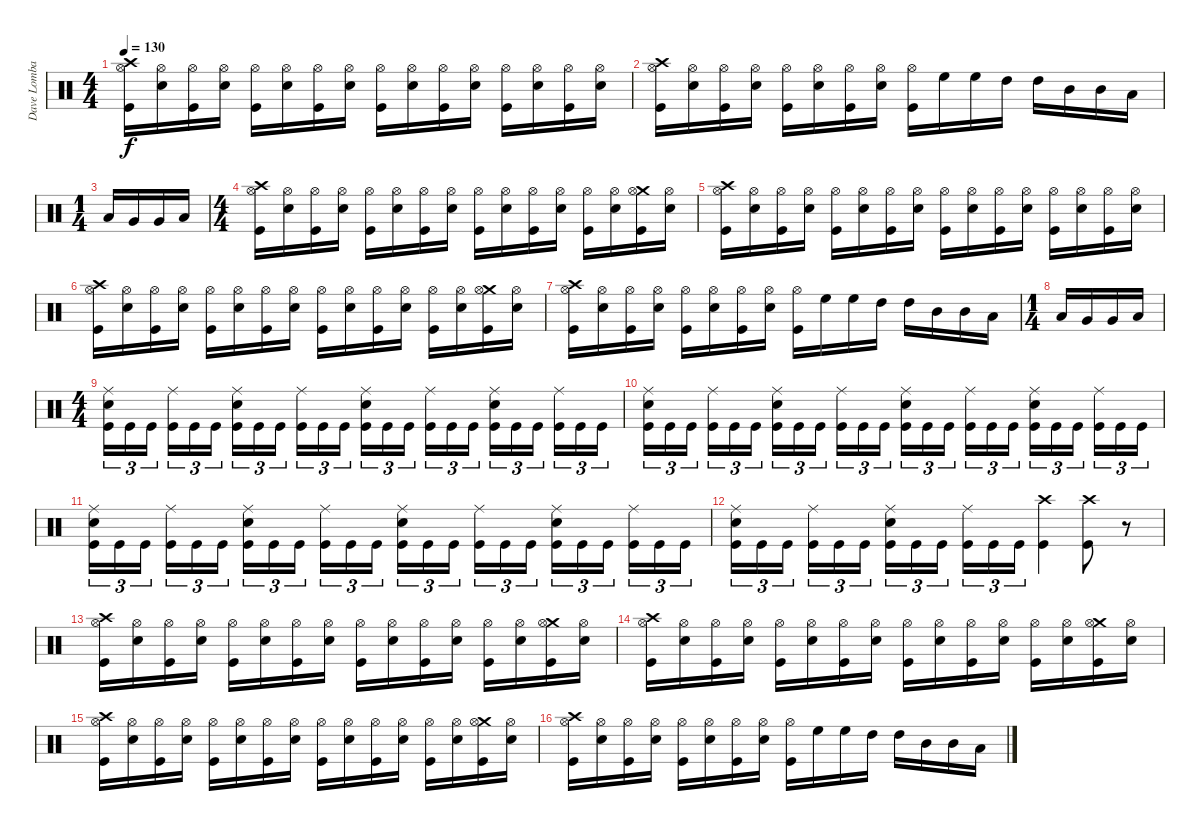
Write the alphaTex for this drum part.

\track ("Dave Lombardo" "Dave Lomba") {instrument percussion}
\staff {score}
\articulation defaults
\ts (4 4)
\tempo 130
\clef neutral
\ks c
("Crash high (hit)" "Hi-Hat (open)" "Kick (hit)").16{dy f} ("Hi-Hat (open)" "Electric Snare (hit)").16 ("Hi-Hat (open)" "Kick (hit)").16 ("Hi-Hat (open)" "Electric Snare (hit)").16 ("Hi-Hat (open)" "Kick (hit)").16 ("Hi-Hat (open)" "Electric Snare (hit)").16 ("Hi-Hat (open)" "Kick (hit)").16 ("Hi-Hat (open)" "Electric Snare (hit)").16 ("Hi-Hat (open)" "Kick (hit)").16 ("Hi-Hat (open)" "Electric Snare (hit)").16 ("Hi-Hat (open)" "Kick (hit)").16 ("Hi-Hat (open)" "Electric Snare (hit)").16 ("Hi-Hat (open)" "Kick (hit)").16 ("Hi-Hat (open)" "Electric Snare (hit)").16 ("Hi-Hat (open)" "Kick (hit)").16 ("Hi-Hat (open)" "Electric Snare (hit)").16 |
("Crash high (hit)" "Hi-Hat (open)" "Kick (hit)").16 ("Hi-Hat (open)" "Electric Snare (hit)").16 ("Hi-Hat (open)" "Kick (hit)").16 ("Hi-Hat (open)" "Electric Snare (hit)").16 ("Hi-Hat (open)" "Kick (hit)").16 ("Hi-Hat (open)" "Electric Snare (hit)").16 ("Hi-Hat (open)" "Kick (hit)").16 ("Hi-Hat (open)" "Electric Snare (hit)").16 ("Hi-Hat (open)" "Kick (hit)").16 "High Floor Tom (hit)".16 "High Floor Tom (hit)".16 "High Tom (hit)".16 "High Tom (hit)".16 "Mid Tom (hit)".16 "Mid Tom (hit)".16 "Low Tom (hit)".16 |
\ts (1 4)
"Low Tom (hit)".16 "Very Low Tom (hit)".16 "Very Low Tom (hit)".16 "Low Floor Tom (hit)".16 |
\ts (4 4)
("Crash high (hit)" "Hi-Hat (open)" "Kick (hit)").16 ("Hi-Hat (open)" "Electric Snare (hit)").16 ("Hi-Hat (open)" "Kick (hit)").16 ("Hi-Hat (open)" "Electric Snare (hit)").16 ("Hi-Hat (open)" "Kick (hit)").16 ("Hi-Hat (open)" "Electric Snare (hit)").16 ("Hi-Hat (open)" "Kick (hit)").16 ("Hi-Hat (open)" "Electric Snare (hit)").16 ("Hi-Hat (open)" "Kick (hit)").16 ("Hi-Hat (open)" "Electric Snare (hit)").16 ("Hi-Hat (open)" "Kick (hit)").16 ("Hi-Hat (open)" "Electric Snare (hit)").16 ("Hi-Hat (open)" "Kick (hit)").16 ("Hi-Hat (open)" "Electric Snare (hit)").16 ("Crash medium (hit)" "Hi-Hat (open)" "Kick (hit)").16 ("Hi-Hat (open)" "Electric Snare (hit)").16 |
("Crash high (hit)" "Hi-Hat (open)" "Kick (hit)").16 ("Hi-Hat (open)" "Electric Snare (hit)").16 ("Hi-Hat (open)" "Kick (hit)").16 ("Hi-Hat (open)" "Electric Snare (hit)").16 ("Hi-Hat (open)" "Kick (hit)").16 ("Hi-Hat (open)" "Electric Snare (hit)").16 ("Hi-Hat (open)" "Kick (hit)").16 ("Hi-Hat (open)" "Electric Snare (hit)").16 ("Hi-Hat (open)" "Kick (hit)").16 ("Hi-Hat (open)" "Electric Snare (hit)").16 ("Hi-Hat (open)" "Kick (hit)").16 ("Hi-Hat (open)" "Electric Snare (hit)").16 ("Hi-Hat (open)" "Kick (hit)").16 ("Hi-Hat (open)" "Electric Snare (hit)").16 ("Hi-Hat (open)" "Kick (hit)").16 ("Hi-Hat (open)" "Electric Snare (hit)").16 |
("Crash high (hit)" "Hi-Hat (open)" "Kick (hit)").16 ("Hi-Hat (open)" "Electric Snare (hit)").16 ("Hi-Hat (open)" "Kick (hit)").16 ("Hi-Hat (open)" "Electric Snare (hit)").16 ("Hi-Hat (open)" "Kick (hit)").16 ("Hi-Hat (open)" "Electric Snare (hit)").16 ("Hi-Hat (open)" "Kick (hit)").16 ("Hi-Hat (open)" "Electric Snare (hit)").16 ("Hi-Hat (open)" "Kick (hit)").16 ("Hi-Hat (open)" "Electric Snare (hit)").16 ("Hi-Hat (open)" "Kick (hit)").16 ("Hi-Hat (open)" "Electric Snare (hit)").16 ("Hi-Hat (open)" "Kick (hit)").16 ("Hi-Hat (open)" "Electric Snare (hit)").16 ("Crash medium (hit)" "Hi-Hat (open)" "Kick (hit)").16 ("Hi-Hat (open)" "Electric Snare (hit)").16 |
("Crash high (hit)" "Hi-Hat (open)" "Kick (hit)").16 ("Hi-Hat (open)" "Electric Snare (hit)").16 ("Hi-Hat (open)" "Kick (hit)").16 ("Hi-Hat (open)" "Electric Snare (hit)").16 ("Hi-Hat (open)" "Kick (hit)").16 ("Hi-Hat (open)" "Electric Snare (hit)").16 ("Hi-Hat (open)" "Kick (hit)").16 ("Hi-Hat (open)" "Electric Snare (hit)").16 ("Hi-Hat (open)" "Kick (hit)").16 "High Floor Tom (hit)".16 "High Floor Tom (hit)".16 "High Tom (hit)".16 "High Tom (hit)".16 "Mid Tom (hit)".16 "Mid Tom (hit)".16 "Low Tom (hit)".16 |
\ts (1 4)
"Low Tom (hit)".16 "Very Low Tom (hit)".16 "Very Low Tom (hit)".16 "Low Floor Tom (hit)".16 |
\ts (4 4)
("Ride (middle)" "Electric Snare (hit)" "Kick (hit)").16{tu (3 2)} "Kick (hit)".16{tu (3 2)} "Kick (hit)".16{tu (3 2)} ("Ride (middle)" "Kick (hit)").16{tu (3 2)} "Kick (hit)".16{tu (3 2)} "Kick (hit)".16{tu (3 2)} ("Ride (middle)" "Electric Snare (hit)" "Kick (hit)").16{tu (3 2)} "Kick (hit)".16{tu (3 2)} "Kick (hit)".16{tu (3 2)} ("Ride (middle)" "Kick (hit)").16{tu (3 2)} "Kick (hit)".16{tu (3 2)} "Kick (hit)".16{tu (3 2)} ("Ride (middle)" "Electric Snare (hit)" "Kick (hit)").16{tu (3 2)} "Kick (hit)".16{tu (3 2)} "Kick (hit)".16{tu (3 2)} ("Ride (middle)" "Kick (hit)").16{tu (3 2)} "Kick (hit)".16{tu (3 2)} "Kick (hit)".16{tu (3 2)} ("Ride (middle)" "Electric Snare (hit)" "Kick (hit)").16{tu (3 2)} "Kick (hit)".16{tu (3 2)} "Kick (hit)".16{tu (3 2)} ("Ride (middle)" "Kick (hit)").16{tu (3 2)} "Kick (hit)".16{tu (3 2)} "Kick (hit)".16{tu (3 2)} |
("Ride (middle)" "Electric Snare (hit)" "Kick (hit)").16{tu (3 2)} "Kick (hit)".16{tu (3 2)} "Kick (hit)".16{tu (3 2)} ("Ride (middle)" "Kick (hit)").16{tu (3 2)} "Kick (hit)".16{tu (3 2)} "Kick (hit)".16{tu (3 2)} ("Ride (middle)" "Electric Snare (hit)" "Kick (hit)").16{tu (3 2)} "Kick (hit)".16{tu (3 2)} "Kick (hit)".16{tu (3 2)} ("Ride (middle)" "Kick (hit)").16{tu (3 2)} "Kick (hit)".16{tu (3 2)} "Kick (hit)".16{tu (3 2)} ("Ride (middle)" "Electric Snare (hit)" "Kick (hit)").16{tu (3 2)} "Kick (hit)".16{tu (3 2)} "Kick (hit)".16{tu (3 2)} ("Ride (middle)" "Kick (hit)").16{tu (3 2)} "Kick (hit)".16{tu (3 2)} "Kick (hit)".16{tu (3 2)} ("Ride (middle)" "Electric Snare (hit)" "Kick (hit)").16{tu (3 2)} "Kick (hit)".16{tu (3 2)} "Kick (hit)".16{tu (3 2)} ("Ride (middle)" "Kick (hit)").16{tu (3 2)} "Kick (hit)".16{tu (3 2)} "Kick (hit)".16{tu (3 2)} |
("Ride (middle)" "Electric Snare (hit)" "Kick (hit)").16{tu (3 2)} "Kick (hit)".16{tu (3 2)} "Kick (hit)".16{tu (3 2)} ("Ride (middle)" "Kick (hit)").16{tu (3 2)} "Kick (hit)".16{tu (3 2)} "Kick (hit)".16{tu (3 2)} ("Ride (middle)" "Electric Snare (hit)" "Kick (hit)").16{tu (3 2)} "Kick (hit)".16{tu (3 2)} "Kick (hit)".16{tu (3 2)} ("Ride (middle)" "Kick (hit)").16{tu (3 2)} "Kick (hit)".16{tu (3 2)} "Kick (hit)".16{tu (3 2)} ("Ride (middle)" "Electric Snare (hit)" "Kick (hit)").16{tu (3 2)} "Kick (hit)".16{tu (3 2)} "Kick (hit)".16{tu (3 2)} ("Ride (middle)" "Kick (hit)").16{tu (3 2)} "Kick (hit)".16{tu (3 2)} "Kick (hit)".16{tu (3 2)} ("Ride (middle)" "Electric Snare (hit)" "Kick (hit)").16{tu (3 2)} "Kick (hit)".16{tu (3 2)} "Kick (hit)".16{tu (3 2)} ("Ride (middle)" "Kick (hit)").16{tu (3 2)} "Kick (hit)".16{tu (3 2)} "Kick (hit)".16{tu (3 2)} |
("Ride (middle)" "Electric Snare (hit)" "Kick (hit)").16{tu (3 2)} "Kick (hit)".16{tu (3 2)} "Kick (hit)".16{tu (3 2)} ("Ride (middle)" "Kick (hit)").16{tu (3 2)} "Kick (hit)".16{tu (3 2)} "Kick (hit)".16{tu (3 2)} ("Ride (middle)" "Electric Snare (hit)" "Kick (hit)").16{tu (3 2)} "Kick (hit)".16{tu (3 2)} "Kick (hit)".16{tu (3 2)} ("Ride (middle)" "Kick (hit)").16{tu (3 2)} "Kick (hit)".16{tu (3 2)} "Kick (hit)".16{tu (3 2)} ("Crash high (hit)" "Kick (hit)").4 ("Crash high (hit)" "Kick (hit)").8 r.8 |
("Crash high (hit)" "Hi-Hat (open)" "Kick (hit)").16 ("Hi-Hat (open)" "Electric Snare (hit)").16 ("Hi-Hat (open)" "Kick (hit)").16 ("Hi-Hat (open)" "Electric Snare (hit)").16 ("Hi-Hat (open)" "Kick (hit)").16 ("Hi-Hat (open)" "Electric Snare (hit)").16 ("Hi-Hat (open)" "Kick (hit)").16 ("Hi-Hat (open)" "Electric Snare (hit)").16 ("Hi-Hat (open)" "Kick (hit)").16 ("Hi-Hat (open)" "Electric Snare (hit)").16 ("Hi-Hat (open)" "Kick (hit)").16 ("Hi-Hat (open)" "Electric Snare (hit)").16 ("Hi-Hat (open)" "Kick (hit)").16 ("Hi-Hat (open)" "Electric Snare (hit)").16 ("Crash medium (hit)" "Hi-Hat (open)" "Kick (hit)").16 ("Hi-Hat (open)" "Electric Snare (hit)").16 |
("Crash high (hit)" "Hi-Hat (open)" "Kick (hit)").16 ("Hi-Hat (open)" "Electric Snare (hit)").16 ("Hi-Hat (open)" "Kick (hit)").16 ("Hi-Hat (open)" "Electric Snare (hit)").16 ("Hi-Hat (open)" "Kick (hit)").16 ("Hi-Hat (open)" "Electric Snare (hit)").16 ("Hi-Hat (open)" "Kick (hit)").16 ("Hi-Hat (open)" "Electric Snare (hit)").16 ("Hi-Hat (open)" "Kick (hit)").16 ("Hi-Hat (open)" "Electric Snare (hit)").16 ("Hi-Hat (open)" "Kick (hit)").16 ("Hi-Hat (open)" "Electric Snare (hit)").16 ("Hi-Hat (open)" "Kick (hit)").16 ("Hi-Hat (open)" "Electric Snare (hit)").16 ("Crash medium (hit)" "Hi-Hat (open)" "Kick (hit)").16 ("Hi-Hat (open)" "Electric Snare (hit)").16 |
("Crash high (hit)" "Hi-Hat (open)" "Kick (hit)").16 ("Hi-Hat (open)" "Electric Snare (hit)").16 ("Hi-Hat (open)" "Kick (hit)").16 ("Hi-Hat (open)" "Electric Snare (hit)").16 ("Hi-Hat (open)" "Kick (hit)").16 ("Hi-Hat (open)" "Electric Snare (hit)").16 ("Hi-Hat (open)" "Kick (hit)").16 ("Hi-Hat (open)" "Electric Snare (hit)").16 ("Hi-Hat (open)" "Kick (hit)").16 ("Hi-Hat (open)" "Electric Snare (hit)").16 ("Hi-Hat (open)" "Kick (hit)").16 ("Hi-Hat (open)" "Electric Snare (hit)").16 ("Hi-Hat (open)" "Kick (hit)").16 ("Hi-Hat (open)" "Electric Snare (hit)").16 ("Crash medium (hit)" "Hi-Hat (open)" "Kick (hit)").16 ("Hi-Hat (open)" "Electric Snare (hit)").16 |
("Crash high (hit)" "Hi-Hat (open)" "Kick (hit)").16 ("Hi-Hat (open)" "Electric Snare (hit)").16 ("Hi-Hat (open)" "Kick (hit)").16 ("Hi-Hat (open)" "Electric Snare (hit)").16 ("Hi-Hat (open)" "Kick (hit)").16 ("Hi-Hat (open)" "Electric Snare (hit)").16 ("Hi-Hat (open)" "Kick (hit)").16 ("Hi-Hat (open)" "Electric Snare (hit)").16 ("Hi-Hat (open)" "Kick (hit)").16 "High Floor Tom (hit)".16 "High Floor Tom (hit)".16 "High Tom (hit)".16 "High Tom (hit)".16 "Mid Tom (hit)".16 "Mid Tom (hit)".16 "Low Tom (hit)".16
